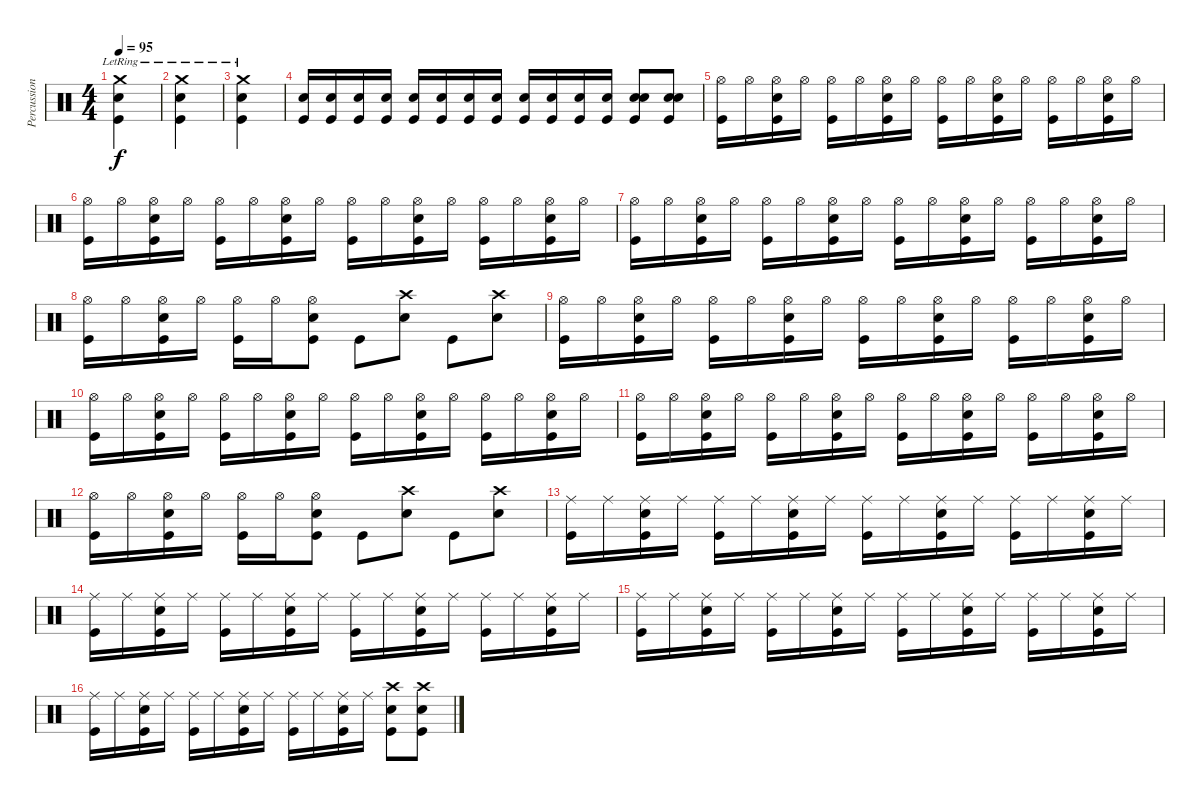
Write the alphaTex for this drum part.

\track ("Percussion" "Percussion") {instrument percussion}
\staff {score}
\articulation defaults
\ts (4 4)
\tempo 95
\clef neutral
\ks c
("Crash medium (hit)"{lr} "Snare (hit) 2" "Kick (hit)").4{dy f} |
("Crash medium (hit)"{lr} "Snare (hit) 2" "Kick (hit)").4 |
("Crash medium (hit)"{lr} "Snare (hit) 2" "Kick (hit)").4 |
("Snare (hit) 2" "Kick (hit)").16 ("Snare (hit) 2" "Kick (hit)").16 ("Snare (hit) 2" "Kick (hit)").16 ("Snare (hit) 2" "Kick (hit)").16 ("Snare (hit) 2" "Kick (hit)").16 ("Snare (hit) 2" "Kick (hit)").16 ("Snare (hit) 2" "Kick (hit)").16 ("Snare (hit) 2" "Kick (hit)").16 ("Snare (hit) 2" "Kick (hit)").16 ("Snare (hit) 2" "Kick (hit)").16 ("Snare (hit) 2" "Kick (hit)").16 ("Snare (hit) 2" "Kick (hit)").16 ("Snare (hit) 2" "Snare (hit) 2" "Kick (hit)").8 ("Snare (hit) 2" "Snare (hit) 2" "Kick (hit)").8 |
("Hi-Hat (open)" "Kick (hit)").16 "Hi-Hat (open)".16 ("Hi-Hat (open)" "Snare (hit) 2" "Kick (hit)").16 "Hi-Hat (open)".16 ("Hi-Hat (open)" "Kick (hit)").16 "Hi-Hat (open)".16 ("Hi-Hat (open)" "Snare (hit) 2" "Kick (hit)").16 "Hi-Hat (open)".16 ("Hi-Hat (open)" "Kick (hit)").16 "Hi-Hat (open)".16 ("Hi-Hat (open)" "Snare (hit) 2" "Kick (hit)").16 "Hi-Hat (open)".16 ("Hi-Hat (open)" "Kick (hit)").16 "Hi-Hat (open)".16 ("Hi-Hat (open)" "Snare (hit) 2" "Kick (hit)").16 "Hi-Hat (open)".16 |
("Hi-Hat (open)" "Kick (hit)").16 "Hi-Hat (open)".16 ("Hi-Hat (open)" "Snare (hit) 2" "Kick (hit)").16 "Hi-Hat (open)".16 ("Hi-Hat (open)" "Kick (hit)").16 "Hi-Hat (open)".16 ("Hi-Hat (open)" "Snare (hit) 2" "Kick (hit)").16 "Hi-Hat (open)".16 ("Hi-Hat (open)" "Kick (hit)").16 "Hi-Hat (open)".16 ("Hi-Hat (open)" "Snare (hit) 2" "Kick (hit)").16 "Hi-Hat (open)".16 ("Hi-Hat (open)" "Kick (hit)").16 "Hi-Hat (open)".16 ("Hi-Hat (open)" "Snare (hit) 2" "Kick (hit)").16 "Hi-Hat (open)".16 |
("Hi-Hat (open)" "Kick (hit)").16 "Hi-Hat (open)".16 ("Hi-Hat (open)" "Snare (hit) 2" "Kick (hit)").16 "Hi-Hat (open)".16 ("Hi-Hat (open)" "Kick (hit)").16 "Hi-Hat (open)".16 ("Hi-Hat (open)" "Snare (hit) 2" "Kick (hit)").16 "Hi-Hat (open)".16 ("Hi-Hat (open)" "Kick (hit)").16 "Hi-Hat (open)".16 ("Hi-Hat (open)" "Snare (hit) 2" "Kick (hit)").16 "Hi-Hat (open)".16 ("Hi-Hat (open)" "Kick (hit)").16 "Hi-Hat (open)".16 ("Hi-Hat (open)" "Snare (hit) 2" "Kick (hit)").16 "Hi-Hat (open)".16 |
("Hi-Hat (open)" "Kick (hit)").16 "Hi-Hat (open)".16 ("Hi-Hat (open)" "Snare (hit) 2" "Kick (hit)").16 "Hi-Hat (open)".16 ("Hi-Hat (open)" "Kick (hit)").16 "Hi-Hat (open)".16 ("Hi-Hat (open)" "Snare (hit) 2" "Kick (hit)").8 "Kick (hit)".8 ("Crash high (hit)" "Snare (hit) 2").8 "Kick (hit)".8 ("Crash high (hit)" "Snare (hit) 2").8 |
("Hi-Hat (open)" "Kick (hit)").16 "Hi-Hat (open)".16 ("Hi-Hat (open)" "Snare (hit) 2" "Kick (hit)").16 "Hi-Hat (open)".16 ("Hi-Hat (open)" "Kick (hit)").16 "Hi-Hat (open)".16 ("Hi-Hat (open)" "Snare (hit) 2" "Kick (hit)").16 "Hi-Hat (open)".16 ("Hi-Hat (open)" "Kick (hit)").16 "Hi-Hat (open)".16 ("Hi-Hat (open)" "Snare (hit) 2" "Kick (hit)").16 "Hi-Hat (open)".16 ("Hi-Hat (open)" "Kick (hit)").16 "Hi-Hat (open)".16 ("Hi-Hat (open)" "Snare (hit) 2" "Kick (hit)").16 "Hi-Hat (open)".16 |
("Hi-Hat (open)" "Kick (hit)").16 "Hi-Hat (open)".16 ("Hi-Hat (open)" "Snare (hit) 2" "Kick (hit)").16 "Hi-Hat (open)".16 ("Hi-Hat (open)" "Kick (hit)").16 "Hi-Hat (open)".16 ("Hi-Hat (open)" "Snare (hit) 2" "Kick (hit)").16 "Hi-Hat (open)".16 ("Hi-Hat (open)" "Kick (hit)").16 "Hi-Hat (open)".16 ("Hi-Hat (open)" "Snare (hit) 2" "Kick (hit)").16 "Hi-Hat (open)".16 ("Hi-Hat (open)" "Kick (hit)").16 "Hi-Hat (open)".16 ("Hi-Hat (open)" "Snare (hit) 2" "Kick (hit)").16 "Hi-Hat (open)".16 |
("Hi-Hat (open)" "Kick (hit)").16 "Hi-Hat (open)".16 ("Hi-Hat (open)" "Snare (hit) 2" "Kick (hit)").16 "Hi-Hat (open)".16 ("Hi-Hat (open)" "Kick (hit)").16 "Hi-Hat (open)".16 ("Hi-Hat (open)" "Snare (hit) 2" "Kick (hit)").16 "Hi-Hat (open)".16 ("Hi-Hat (open)" "Kick (hit)").16 "Hi-Hat (open)".16 ("Hi-Hat (open)" "Snare (hit) 2" "Kick (hit)").16 "Hi-Hat (open)".16 ("Hi-Hat (open)" "Kick (hit)").16 "Hi-Hat (open)".16 ("Hi-Hat (open)" "Snare (hit) 2" "Kick (hit)").16 "Hi-Hat (open)".16 |
("Hi-Hat (open)" "Kick (hit)").16 "Hi-Hat (open)".16 ("Hi-Hat (open)" "Snare (hit) 2" "Kick (hit)").16 "Hi-Hat (open)".16 ("Hi-Hat (open)" "Kick (hit)").16 "Hi-Hat (open)".16 ("Hi-Hat (open)" "Snare (hit) 2" "Kick (hit)").8 "Kick (hit)".8 ("Crash high (hit)" "Snare (hit) 2").8 "Kick (hit)".8 ("Crash high (hit)" "Snare (hit) 2").8 |
("Ride (middle)" "Kick (hit)").16 "Ride (middle)".16 ("Ride (middle)" "Snare (hit) 2" "Kick (hit)").16 "Ride (middle)".16 ("Ride (middle)" "Kick (hit)").16 "Ride (middle)".16 ("Ride (middle)" "Snare (hit) 2" "Kick (hit)").16 "Ride (middle)".16 ("Ride (middle)" "Kick (hit)").16 "Ride (middle)".16 ("Ride (middle)" "Snare (hit) 2" "Kick (hit)").16 "Ride (middle)".16 ("Ride (middle)" "Kick (hit)").16 "Ride (middle)".16 ("Ride (middle)" "Snare (hit) 2" "Kick (hit)").16 "Ride (middle)".16 |
("Ride (middle)" "Kick (hit)").16 "Ride (middle)".16 ("Ride (middle)" "Snare (hit) 2" "Kick (hit)").16 "Ride (middle)".16 ("Ride (middle)" "Kick (hit)").16 "Ride (middle)".16 ("Ride (middle)" "Snare (hit) 2" "Kick (hit)").16 "Ride (middle)".16 ("Ride (middle)" "Kick (hit)").16 "Ride (middle)".16 ("Ride (middle)" "Snare (hit) 2" "Kick (hit)").16 "Ride (middle)".16 ("Ride (middle)" "Kick (hit)").16 "Ride (middle)".16 ("Ride (middle)" "Snare (hit) 2" "Kick (hit)").16 "Ride (middle)".16 |
("Ride (middle)" "Kick (hit)").16 "Ride (middle)".16 ("Ride (middle)" "Snare (hit) 2" "Kick (hit)").16 "Ride (middle)".16 ("Ride (middle)" "Kick (hit)").16 "Ride (middle)".16 ("Ride (middle)" "Snare (hit) 2" "Kick (hit)").16 "Ride (middle)".16 ("Ride (middle)" "Kick (hit)").16 "Ride (middle)".16 ("Ride (middle)" "Snare (hit) 2" "Kick (hit)").16 "Ride (middle)".16 ("Ride (middle)" "Kick (hit)").16 "Ride (middle)".16 ("Ride (middle)" "Snare (hit) 2" "Kick (hit)").16 "Ride (middle)".16 |
("Ride (middle)" "Kick (hit)").16 "Ride (middle)".16 ("Ride (middle)" "Snare (hit) 2" "Kick (hit)").16 "Ride (middle)".16 ("Ride (middle)" "Kick (hit)").16 "Ride (middle)".16 ("Ride (middle)" "Snare (hit) 2" "Kick (hit)").16 "Ride (middle)".16 ("Ride (middle)" "Kick (hit)").16 "Ride (middle)".16 ("Ride (middle)" "Snare (hit) 2" "Kick (hit)").16 "Ride (middle)".16 ("Crash high (hit)" "Snare (hit) 2" "Kick (hit)").8 ("Crash high (hit)" "Snare (hit) 2" "Kick (hit)").8
